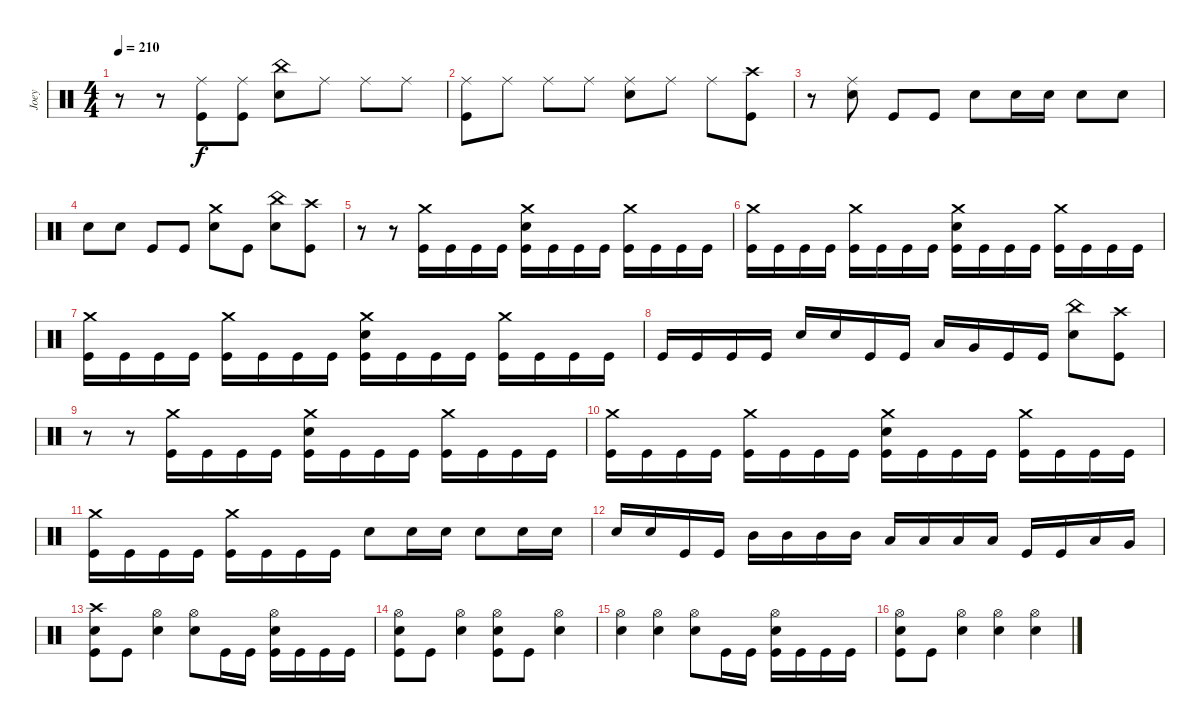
\track ("Joey" "Joey") {instrument percussion}
\staff {score}
\articulation defaults
\ts (4 4)
\tempo 210
\clef neutral
\ks c
r.8{dy f} r.8 ("Kick (hit)" "Ride (middle)").8 ("Kick (hit)" "Ride (middle)").8 ("Snare (hit) 2" "China (hit)").8 "Ride (middle)".8 "Ride (middle)".8 "Ride (middle)".8 |
("Ride (middle)" "Kick (hit)").8 "Ride (middle)".8 "Ride (middle)".8 "Ride (middle)".8 ("Ride (middle)" "Snare (hit) 2").8 "Ride (middle)".8 "Ride (middle)".8 ("Crash high (hit)" "Kick (hit)").8 |
r.8 ("Snare (hit) 2" "Ride (middle)").8 "Kick (hit)".8 "Kick (hit)".8 "Snare (hit) 2".8 "Snare (hit) 2".16 "Snare (hit) 2".16 "Snare (hit) 2".8 "Snare (hit) 2".8 |
"Snare (hit) 2".8 "Snare (hit) 2".8 "Kick (hit)".8 "Kick (hit)".8 ("Snare (hit) 2" "Crash medium (hit)").8 "Kick (hit)".8 ("Snare (hit) 2" "China (hit)").8 ("Kick (hit)" "Crash high (hit)").8 |
r.8 r.8 ("Kick (hit)" "Crash medium (hit)").16 "Kick (hit)".16 "Kick (hit)".16 "Kick (hit)".16 ("Kick (hit)" "Crash medium (hit)" "Snare (hit) 2").16 "Kick (hit)".16 "Kick (hit)".16 "Kick (hit)".16 ("Kick (hit)" "Crash medium (hit)").16 "Kick (hit)".16 "Kick (hit)".16 "Kick (hit)".16 |
("Kick (hit)" "Crash medium (hit)").16 "Kick (hit)".16 "Kick (hit)".16 "Kick (hit)".16 ("Kick (hit)" "Crash medium (hit)").16 "Kick (hit)".16 "Kick (hit)".16 "Kick (hit)".16 ("Snare (hit) 2" "Crash medium (hit)" "Kick (hit)").16 "Kick (hit)".16 "Kick (hit)".16 "Kick (hit)".16 ("Kick (hit)" "Crash medium (hit)").16 "Kick (hit)".16 "Kick (hit)".16 "Kick (hit)".16 |
("Kick (hit)" "Crash medium (hit)").16 "Kick (hit)".16 "Kick (hit)".16 "Kick (hit)".16 ("Kick (hit)" "Crash medium (hit)").16 "Kick (hit)".16 "Kick (hit)".16 "Kick (hit)".16 ("Snare (hit) 2" "Crash medium (hit)" "Kick (hit)").16 "Kick (hit)".16 "Kick (hit)".16 "Kick (hit)".16 ("Kick (hit)" "Crash medium (hit)").16 "Kick (hit)".16 "Kick (hit)".16 "Kick (hit)".16 |
"Kick (hit)".16 "Kick (hit)".16 "Kick (hit)".16 "Kick (hit)".16 "Snare (hit) 2".16 "Snare (hit) 2".16 "Kick (hit)".16 "Kick (hit)".16 "Low Floor Tom (hit)".16 "Very Low Tom (hit)".16 "Kick (hit)".16 "Kick (hit)".16 ("Snare (hit) 2" "China (hit)").8 ("Crash high (hit)" "Kick (hit)").8 |
r.8 r.8 ("Kick (hit)" "Crash medium (hit)").16 "Kick (hit)".16 "Kick (hit)".16 "Kick (hit)".16 ("Snare (hit) 2" "Crash medium (hit)" "Kick (hit)").16 "Kick (hit)".16 "Kick (hit)".16 "Kick (hit)".16 ("Kick (hit)" "Crash medium (hit)").16 "Kick (hit)".16 "Kick (hit)".16 "Kick (hit)".16 |
("Kick (hit)" "Crash medium (hit)").16 "Kick (hit)".16 "Kick (hit)".16 "Kick (hit)".16 ("Kick (hit)" "Crash medium (hit)").16 "Kick (hit)".16 "Kick (hit)".16 "Kick (hit)".16 ("Snare (hit) 2" "Crash medium (hit)" "Kick (hit)").16 "Kick (hit)".16 "Kick (hit)".16 "Kick (hit)".16 ("Kick (hit)" "Crash medium (hit)").16 "Kick (hit)".16 "Kick (hit)".16 "Kick (hit)".16 |
("Kick (hit)" "Crash medium (hit)").16 "Kick (hit)".16 "Kick (hit)".16 "Kick (hit)".16 ("Kick (hit)" "Crash medium (hit)").16 "Kick (hit)".16 "Kick (hit)".16 "Kick (hit)".16 "Snare (hit) 2".8 "Snare (hit) 2".16 "Snare (hit) 2".16 "Snare (hit) 2".8 "Snare (hit) 2".16 "Snare (hit) 2".16 |
"Snare (hit) 2".16 "Snare (hit) 2".16 "Kick (hit)".16 "Kick (hit)".16 "Mid Tom (hit)".16 "Mid Tom (hit)".16 "Mid Tom (hit)".16 "Mid Tom (hit)".16 "Low Tom (hit)".16 "Low Tom (hit)".16 "Low Tom (hit)".16 "Low Tom (hit)".16 "Kick (hit)".16 "Kick (hit)".16 "Low Floor Tom (hit)".16 "Very Low Tom (hit)".16 |
("Crash high (hit)" "Kick (hit)" "Snare (hit) 2").8 "Kick (hit)".8 ("Hi-Hat (open)" "Snare (hit) 2").4 ("Hi-Hat (open)" "Snare (hit) 2").8 "Kick (hit)".16 "Kick (hit)".16 ("Kick (hit)" "Hi-Hat (open)" "Snare (hit) 2").16 "Kick (hit)".16 "Kick (hit)".16 "Kick (hit)".16 |
("Kick (hit)" "Hi-Hat (open)" "Snare (hit) 2").8 "Kick (hit)".8 ("Hi-Hat (open)" "Snare (hit) 2").4 ("Hi-Hat (open)" "Snare (hit) 2" "Kick (hit)").8 "Kick (hit)".8 ("Hi-Hat (open)" "Snare (hit) 2").4 |
("Hi-Hat (open)" "Snare (hit) 2").4 ("Snare (hit) 2" "Hi-Hat (open)").4 ("Snare (hit) 2" "Hi-Hat (open)").8 "Kick (hit)".16 "Kick (hit)".16 ("Kick (hit)" "Hi-Hat (open)" "Snare (hit) 2").16 "Kick (hit)".16 "Kick (hit)".16 "Kick (hit)".16 |
("Kick (hit)" "Hi-Hat (open)" "Snare (hit) 2").8 "Kick (hit)".8 ("Hi-Hat (open)" "Snare (hit) 2").4 ("Snare (hit) 2" "Hi-Hat (open)").4 ("Snare (hit) 2" "Hi-Hat (open)").4
